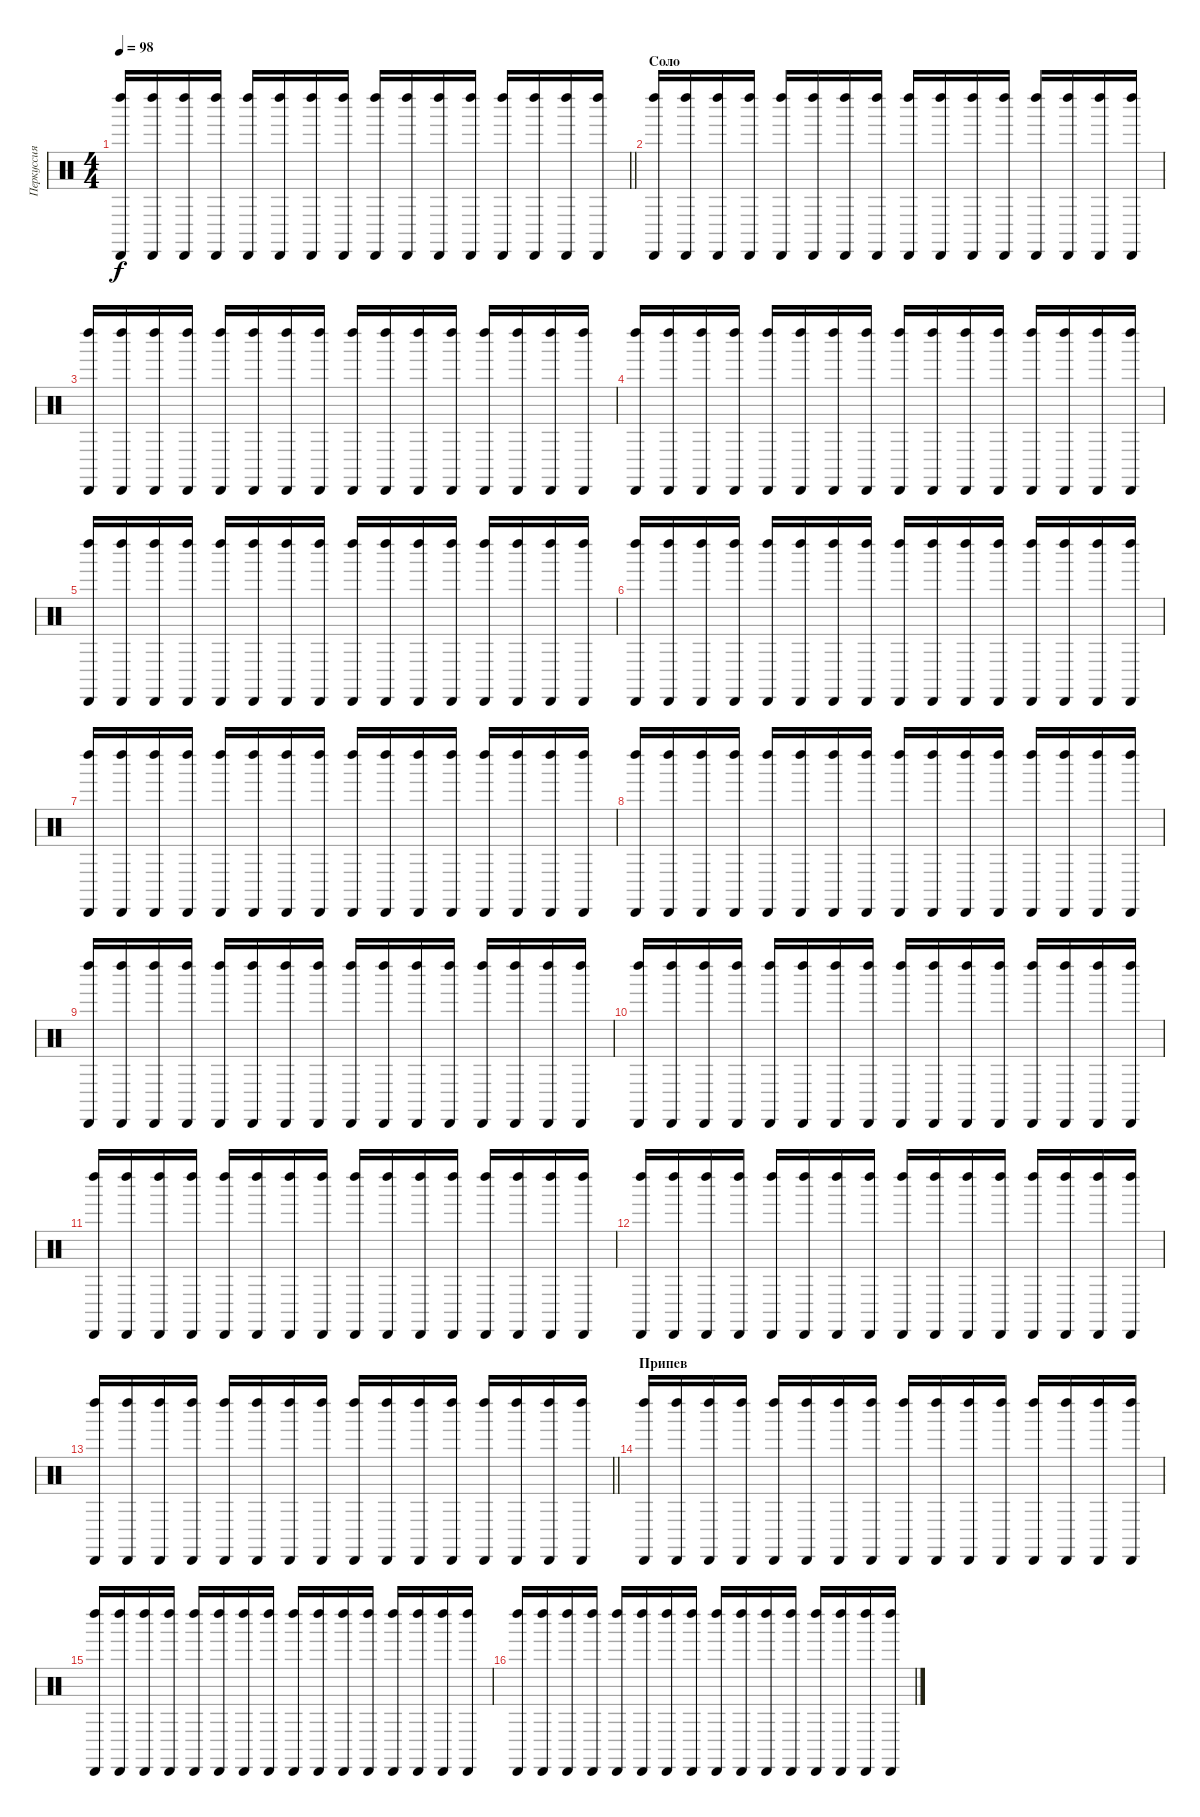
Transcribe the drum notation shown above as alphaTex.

\track ("Перкуссия" "Перкуссия") {instrument percussion}
\staff {score}
\articulation defaults
\ts (4 4)
\tempo 98
\clef neutral
\barLineRight lightlight
\ks c
("Cabasa (hit)" "Left Maraca (hit)").16{dy f} ("Cabasa (hit)" "Left Maraca (hit)").16 ("Cabasa (hit)" "Left Maraca (hit)").16 ("Cabasa (hit)" "Left Maraca (hit)").16 ("Cabasa (hit)" "Left Maraca (hit)").16 ("Cabasa (hit)" "Left Maraca (hit)").16 ("Cabasa (hit)" "Left Maraca (hit)").16 ("Cabasa (hit)" "Left Maraca (hit)").16 ("Cabasa (hit)" "Left Maraca (hit)").16 ("Cabasa (hit)" "Left Maraca (hit)").16 ("Cabasa (hit)" "Left Maraca (hit)").16 ("Cabasa (hit)" "Left Maraca (hit)").16 ("Cabasa (hit)" "Left Maraca (hit)").16 ("Cabasa (hit)" "Left Maraca (hit)").16 ("Cabasa (hit)" "Left Maraca (hit)").16 ("Cabasa (hit)" "Left Maraca (hit)").16 |
\section ("" "Соло")
("Cabasa (hit)" "Left Maraca (hit)").16 ("Cabasa (hit)" "Left Maraca (hit)").16 ("Cabasa (hit)" "Left Maraca (hit)").16 ("Cabasa (hit)" "Left Maraca (hit)").16 ("Cabasa (hit)" "Left Maraca (hit)").16 ("Cabasa (hit)" "Left Maraca (hit)").16 ("Cabasa (hit)" "Left Maraca (hit)").16 ("Cabasa (hit)" "Left Maraca (hit)").16 ("Cabasa (hit)" "Left Maraca (hit)").16 ("Cabasa (hit)" "Left Maraca (hit)").16 ("Cabasa (hit)" "Left Maraca (hit)").16 ("Cabasa (hit)" "Left Maraca (hit)").16 ("Cabasa (hit)" "Left Maraca (hit)").16 ("Cabasa (hit)" "Left Maraca (hit)").16 ("Cabasa (hit)" "Left Maraca (hit)").16 ("Cabasa (hit)" "Left Maraca (hit)").16 |
("Cabasa (hit)" "Left Maraca (hit)").16 ("Cabasa (hit)" "Left Maraca (hit)").16 ("Cabasa (hit)" "Left Maraca (hit)").16 ("Cabasa (hit)" "Left Maraca (hit)").16 ("Cabasa (hit)" "Left Maraca (hit)").16 ("Cabasa (hit)" "Left Maraca (hit)").16 ("Cabasa (hit)" "Left Maraca (hit)").16 ("Cabasa (hit)" "Left Maraca (hit)").16 ("Cabasa (hit)" "Left Maraca (hit)").16 ("Cabasa (hit)" "Left Maraca (hit)").16 ("Cabasa (hit)" "Left Maraca (hit)").16 ("Cabasa (hit)" "Left Maraca (hit)").16 ("Cabasa (hit)" "Left Maraca (hit)").16 ("Cabasa (hit)" "Left Maraca (hit)").16 ("Cabasa (hit)" "Left Maraca (hit)").16 ("Cabasa (hit)" "Left Maraca (hit)").16 |
("Cabasa (hit)" "Left Maraca (hit)").16 ("Cabasa (hit)" "Left Maraca (hit)").16 ("Cabasa (hit)" "Left Maraca (hit)").16 ("Cabasa (hit)" "Left Maraca (hit)").16 ("Cabasa (hit)" "Left Maraca (hit)").16 ("Cabasa (hit)" "Left Maraca (hit)").16 ("Cabasa (hit)" "Left Maraca (hit)").16 ("Cabasa (hit)" "Left Maraca (hit)").16 ("Cabasa (hit)" "Left Maraca (hit)").16 ("Cabasa (hit)" "Left Maraca (hit)").16 ("Cabasa (hit)" "Left Maraca (hit)").16 ("Cabasa (hit)" "Left Maraca (hit)").16 ("Cabasa (hit)" "Left Maraca (hit)").16 ("Cabasa (hit)" "Left Maraca (hit)").16 ("Cabasa (hit)" "Left Maraca (hit)").16 ("Cabasa (hit)" "Left Maraca (hit)").16 |
("Cabasa (hit)" "Left Maraca (hit)").16 ("Cabasa (hit)" "Left Maraca (hit)").16 ("Cabasa (hit)" "Left Maraca (hit)").16 ("Cabasa (hit)" "Left Maraca (hit)").16 ("Cabasa (hit)" "Left Maraca (hit)").16 ("Cabasa (hit)" "Left Maraca (hit)").16 ("Cabasa (hit)" "Left Maraca (hit)").16 ("Cabasa (hit)" "Left Maraca (hit)").16 ("Cabasa (hit)" "Left Maraca (hit)").16 ("Cabasa (hit)" "Left Maraca (hit)").16 ("Cabasa (hit)" "Left Maraca (hit)").16 ("Cabasa (hit)" "Left Maraca (hit)").16 ("Cabasa (hit)" "Left Maraca (hit)").16 ("Cabasa (hit)" "Left Maraca (hit)").16 ("Cabasa (hit)" "Left Maraca (hit)").16 ("Cabasa (hit)" "Left Maraca (hit)").16 |
("Cabasa (hit)" "Left Maraca (hit)").16 ("Cabasa (hit)" "Left Maraca (hit)").16 ("Cabasa (hit)" "Left Maraca (hit)").16 ("Cabasa (hit)" "Left Maraca (hit)").16 ("Cabasa (hit)" "Left Maraca (hit)").16 ("Cabasa (hit)" "Left Maraca (hit)").16 ("Cabasa (hit)" "Left Maraca (hit)").16 ("Cabasa (hit)" "Left Maraca (hit)").16 ("Cabasa (hit)" "Left Maraca (hit)").16 ("Cabasa (hit)" "Left Maraca (hit)").16 ("Cabasa (hit)" "Left Maraca (hit)").16 ("Cabasa (hit)" "Left Maraca (hit)").16 ("Cabasa (hit)" "Left Maraca (hit)").16 ("Cabasa (hit)" "Left Maraca (hit)").16 ("Cabasa (hit)" "Left Maraca (hit)").16 ("Cabasa (hit)" "Left Maraca (hit)").16 |
("Cabasa (hit)" "Left Maraca (hit)").16 ("Cabasa (hit)" "Left Maraca (hit)").16 ("Cabasa (hit)" "Left Maraca (hit)").16 ("Cabasa (hit)" "Left Maraca (hit)").16 ("Cabasa (hit)" "Left Maraca (hit)").16 ("Cabasa (hit)" "Left Maraca (hit)").16 ("Cabasa (hit)" "Left Maraca (hit)").16 ("Cabasa (hit)" "Left Maraca (hit)").16 ("Cabasa (hit)" "Left Maraca (hit)").16 ("Cabasa (hit)" "Left Maraca (hit)").16 ("Cabasa (hit)" "Left Maraca (hit)").16 ("Cabasa (hit)" "Left Maraca (hit)").16 ("Cabasa (hit)" "Left Maraca (hit)").16 ("Cabasa (hit)" "Left Maraca (hit)").16 ("Cabasa (hit)" "Left Maraca (hit)").16 ("Cabasa (hit)" "Left Maraca (hit)").16 |
("Cabasa (hit)" "Left Maraca (hit)").16 ("Cabasa (hit)" "Left Maraca (hit)").16 ("Cabasa (hit)" "Left Maraca (hit)").16 ("Cabasa (hit)" "Left Maraca (hit)").16 ("Cabasa (hit)" "Left Maraca (hit)").16 ("Cabasa (hit)" "Left Maraca (hit)").16 ("Cabasa (hit)" "Left Maraca (hit)").16 ("Cabasa (hit)" "Left Maraca (hit)").16 ("Cabasa (hit)" "Left Maraca (hit)").16 ("Cabasa (hit)" "Left Maraca (hit)").16 ("Cabasa (hit)" "Left Maraca (hit)").16 ("Cabasa (hit)" "Left Maraca (hit)").16 ("Cabasa (hit)" "Left Maraca (hit)").16 ("Cabasa (hit)" "Left Maraca (hit)").16 ("Cabasa (hit)" "Left Maraca (hit)").16 ("Cabasa (hit)" "Left Maraca (hit)").16 |
("Cabasa (hit)" "Left Maraca (hit)").16 ("Cabasa (hit)" "Left Maraca (hit)").16 ("Cabasa (hit)" "Left Maraca (hit)").16 ("Cabasa (hit)" "Left Maraca (hit)").16 ("Cabasa (hit)" "Left Maraca (hit)").16 ("Cabasa (hit)" "Left Maraca (hit)").16 ("Cabasa (hit)" "Left Maraca (hit)").16 ("Cabasa (hit)" "Left Maraca (hit)").16 ("Cabasa (hit)" "Left Maraca (hit)").16 ("Cabasa (hit)" "Left Maraca (hit)").16 ("Cabasa (hit)" "Left Maraca (hit)").16 ("Cabasa (hit)" "Left Maraca (hit)").16 ("Cabasa (hit)" "Left Maraca (hit)").16 ("Cabasa (hit)" "Left Maraca (hit)").16 ("Cabasa (hit)" "Left Maraca (hit)").16 ("Cabasa (hit)" "Left Maraca (hit)").16 |
("Cabasa (hit)" "Left Maraca (hit)").16 ("Cabasa (hit)" "Left Maraca (hit)").16 ("Cabasa (hit)" "Left Maraca (hit)").16 ("Cabasa (hit)" "Left Maraca (hit)").16 ("Cabasa (hit)" "Left Maraca (hit)").16 ("Cabasa (hit)" "Left Maraca (hit)").16 ("Cabasa (hit)" "Left Maraca (hit)").16 ("Cabasa (hit)" "Left Maraca (hit)").16 ("Cabasa (hit)" "Left Maraca (hit)").16 ("Cabasa (hit)" "Left Maraca (hit)").16 ("Cabasa (hit)" "Left Maraca (hit)").16 ("Cabasa (hit)" "Left Maraca (hit)").16 ("Cabasa (hit)" "Left Maraca (hit)").16 ("Cabasa (hit)" "Left Maraca (hit)").16 ("Cabasa (hit)" "Left Maraca (hit)").16 ("Cabasa (hit)" "Left Maraca (hit)").16 |
("Cabasa (hit)" "Left Maraca (hit)").16 ("Cabasa (hit)" "Left Maraca (hit)").16 ("Cabasa (hit)" "Left Maraca (hit)").16 ("Cabasa (hit)" "Left Maraca (hit)").16 ("Cabasa (hit)" "Left Maraca (hit)").16 ("Cabasa (hit)" "Left Maraca (hit)").16 ("Cabasa (hit)" "Left Maraca (hit)").16 ("Cabasa (hit)" "Left Maraca (hit)").16 ("Cabasa (hit)" "Left Maraca (hit)").16 ("Cabasa (hit)" "Left Maraca (hit)").16 ("Cabasa (hit)" "Left Maraca (hit)").16 ("Cabasa (hit)" "Left Maraca (hit)").16 ("Cabasa (hit)" "Left Maraca (hit)").16 ("Cabasa (hit)" "Left Maraca (hit)").16 ("Cabasa (hit)" "Left Maraca (hit)").16 ("Cabasa (hit)" "Left Maraca (hit)").16 |
("Cabasa (hit)" "Left Maraca (hit)").16 ("Cabasa (hit)" "Left Maraca (hit)").16 ("Cabasa (hit)" "Left Maraca (hit)").16 ("Cabasa (hit)" "Left Maraca (hit)").16 ("Cabasa (hit)" "Left Maraca (hit)").16 ("Cabasa (hit)" "Left Maraca (hit)").16 ("Cabasa (hit)" "Left Maraca (hit)").16 ("Cabasa (hit)" "Left Maraca (hit)").16 ("Cabasa (hit)" "Left Maraca (hit)").16 ("Cabasa (hit)" "Left Maraca (hit)").16 ("Cabasa (hit)" "Left Maraca (hit)").16 ("Cabasa (hit)" "Left Maraca (hit)").16 ("Cabasa (hit)" "Left Maraca (hit)").16 ("Cabasa (hit)" "Left Maraca (hit)").16 ("Cabasa (hit)" "Left Maraca (hit)").16 ("Cabasa (hit)" "Left Maraca (hit)").16 |
\barLineRight lightlight
("Cabasa (hit)" "Left Maraca (hit)").16 ("Cabasa (hit)" "Left Maraca (hit)").16 ("Cabasa (hit)" "Left Maraca (hit)").16 ("Cabasa (hit)" "Left Maraca (hit)").16 ("Cabasa (hit)" "Left Maraca (hit)").16 ("Cabasa (hit)" "Left Maraca (hit)").16 ("Cabasa (hit)" "Left Maraca (hit)").16 ("Cabasa (hit)" "Left Maraca (hit)").16 ("Cabasa (hit)" "Left Maraca (hit)").16 ("Cabasa (hit)" "Left Maraca (hit)").16 ("Cabasa (hit)" "Left Maraca (hit)").16 ("Cabasa (hit)" "Left Maraca (hit)").16 ("Cabasa (hit)" "Left Maraca (hit)").16 ("Cabasa (hit)" "Left Maraca (hit)").16 ("Cabasa (hit)" "Left Maraca (hit)").16 ("Cabasa (hit)" "Left Maraca (hit)").16 |
\section ("" "Припев")
("Cabasa (hit)" "Left Maraca (hit)").16 ("Cabasa (hit)" "Left Maraca (hit)").16 ("Cabasa (hit)" "Left Maraca (hit)").16 ("Cabasa (hit)" "Left Maraca (hit)").16 ("Cabasa (hit)" "Left Maraca (hit)").16 ("Cabasa (hit)" "Left Maraca (hit)").16 ("Cabasa (hit)" "Left Maraca (hit)").16 ("Cabasa (hit)" "Left Maraca (hit)").16 ("Cabasa (hit)" "Left Maraca (hit)").16 ("Cabasa (hit)" "Left Maraca (hit)").16 ("Cabasa (hit)" "Left Maraca (hit)").16 ("Cabasa (hit)" "Left Maraca (hit)").16 ("Cabasa (hit)" "Left Maraca (hit)").16 ("Cabasa (hit)" "Left Maraca (hit)").16 ("Cabasa (hit)" "Left Maraca (hit)").16 ("Cabasa (hit)" "Left Maraca (hit)").16 |
("Cabasa (hit)" "Left Maraca (hit)").16 ("Cabasa (hit)" "Left Maraca (hit)").16 ("Cabasa (hit)" "Left Maraca (hit)").16 ("Cabasa (hit)" "Left Maraca (hit)").16 ("Cabasa (hit)" "Left Maraca (hit)").16 ("Cabasa (hit)" "Left Maraca (hit)").16 ("Cabasa (hit)" "Left Maraca (hit)").16 ("Cabasa (hit)" "Left Maraca (hit)").16 ("Cabasa (hit)" "Left Maraca (hit)").16 ("Cabasa (hit)" "Left Maraca (hit)").16 ("Cabasa (hit)" "Left Maraca (hit)").16 ("Cabasa (hit)" "Left Maraca (hit)").16 ("Cabasa (hit)" "Left Maraca (hit)").16 ("Cabasa (hit)" "Left Maraca (hit)").16 ("Cabasa (hit)" "Left Maraca (hit)").16 ("Cabasa (hit)" "Left Maraca (hit)").16 |
("Cabasa (hit)" "Left Maraca (hit)").16 ("Cabasa (hit)" "Left Maraca (hit)").16 ("Cabasa (hit)" "Left Maraca (hit)").16 ("Cabasa (hit)" "Left Maraca (hit)").16 ("Cabasa (hit)" "Left Maraca (hit)").16 ("Cabasa (hit)" "Left Maraca (hit)").16 ("Cabasa (hit)" "Left Maraca (hit)").16 ("Cabasa (hit)" "Left Maraca (hit)").16 ("Cabasa (hit)" "Left Maraca (hit)").16 ("Cabasa (hit)" "Left Maraca (hit)").16 ("Cabasa (hit)" "Left Maraca (hit)").16 ("Cabasa (hit)" "Left Maraca (hit)").16 ("Cabasa (hit)" "Left Maraca (hit)").16 ("Cabasa (hit)" "Left Maraca (hit)").16 ("Cabasa (hit)" "Left Maraca (hit)").16 ("Cabasa (hit)" "Left Maraca (hit)").16
